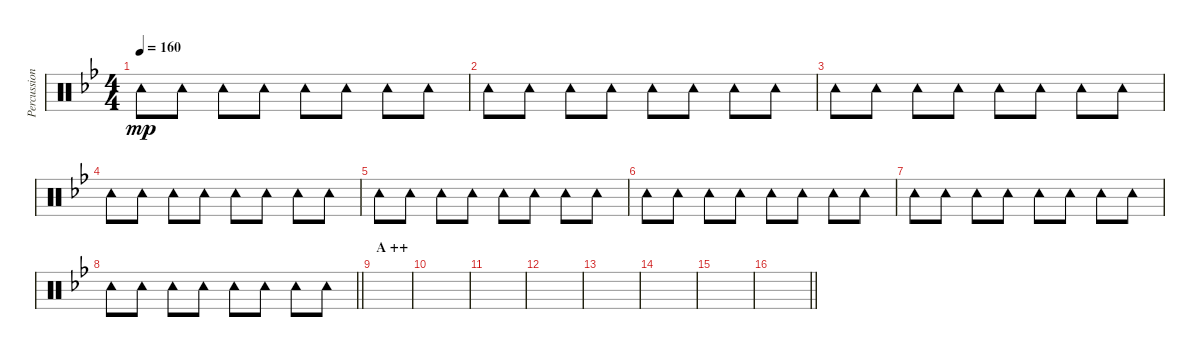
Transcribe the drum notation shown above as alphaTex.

\track ("Percussion (Tainaka Ritsu)" "Percussion") {instrument percussion}
\staff {score}
\articulation defaults
\ts (4 4)
\tempo 160
\clef neutral
\ks bb "Tambourine (hit)".8{dy mp} "Tambourine (hit)".8 "Tambourine (hit)".8 "Tambourine (hit)".8 "Tambourine (hit)".8 "Tambourine (hit)".8 "Tambourine (hit)".8 "Tambourine (hit)".8
|
"Tambourine (hit)".8 "Tambourine (hit)".8 "Tambourine (hit)".8 "Tambourine (hit)".8 "Tambourine (hit)".8 "Tambourine (hit)".8 "Tambourine (hit)".8 "Tambourine (hit)".8 |
"Tambourine (hit)".8 "Tambourine (hit)".8 "Tambourine (hit)".8 "Tambourine (hit)".8 "Tambourine (hit)".8 "Tambourine (hit)".8 "Tambourine (hit)".8 "Tambourine (hit)".8 |
"Tambourine (hit)".8 "Tambourine (hit)".8 "Tambourine (hit)".8 "Tambourine (hit)".8 "Tambourine (hit)".8 "Tambourine (hit)".8 "Tambourine (hit)".8 "Tambourine (hit)".8 |
"Tambourine (hit)".8 "Tambourine (hit)".8 "Tambourine (hit)".8 "Tambourine (hit)".8 "Tambourine (hit)".8 "Tambourine (hit)".8 "Tambourine (hit)".8 "Tambourine (hit)".8 |
"Tambourine (hit)".8 "Tambourine (hit)".8 "Tambourine (hit)".8 "Tambourine (hit)".8 "Tambourine (hit)".8 "Tambourine (hit)".8 "Tambourine (hit)".8 "Tambourine (hit)".8 |
"Tambourine (hit)".8 "Tambourine (hit)".8 "Tambourine (hit)".8 "Tambourine (hit)".8 "Tambourine (hit)".8 "Tambourine (hit)".8 "Tambourine (hit)".8 "Tambourine (hit)".8 |
\barLineRight lightlight "Tambourine (hit)".8 "Tambourine (hit)".8 "Tambourine (hit)".8 "Tambourine (hit)".8 "Tambourine (hit)".8 "Tambourine (hit)".8 "Tambourine (hit)".8 "Tambourine (hit)".8
|
\section ("" "A ++")
|
|
|
|
|
|
|
\barLineRight lightlight
